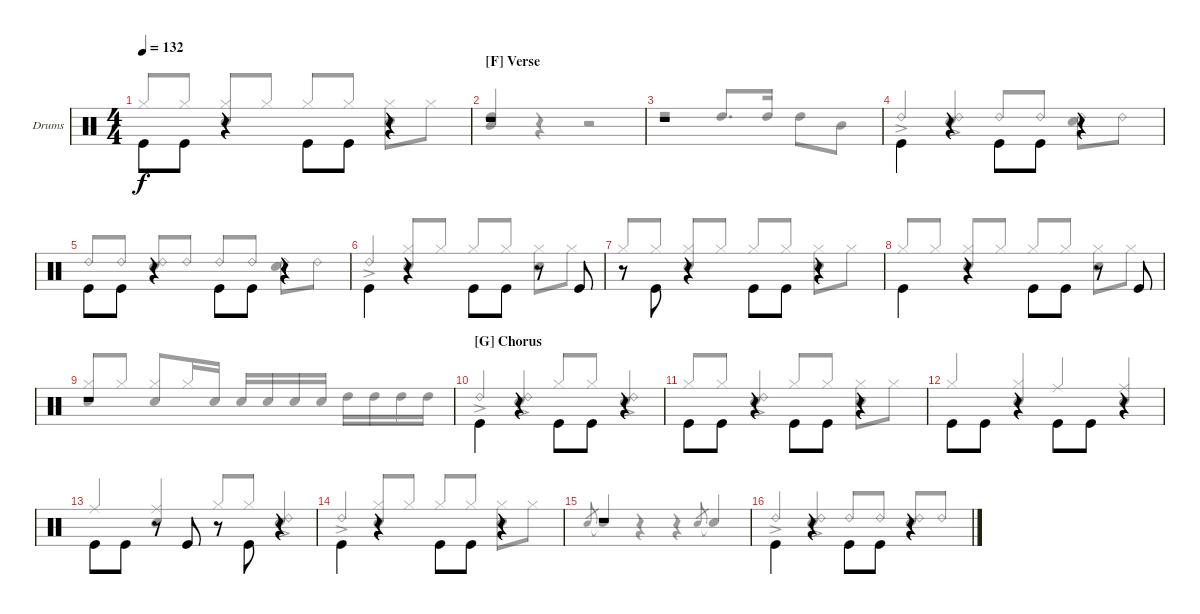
\bracketExtendMode groupsimilarinstruments
\firstSystemTrackNameOrientation horizontal
\otherSystemsTrackNameOrientation horizontal
\track ("Drum" "Drums") {instrument percussion}
\staff {score}
\articulation defaults
\voice
\ts (4 4)
\tempo 132
\clef neutral
\scale
0.973518
\ks aminor "Kick (hit)".8{dy f beam invert} "Kick (hit)".8
r.4 "Kick (hit)".8{beam invert} "Kick (hit)".8 r.4 |
\section ("F" "Verse")
\scale
1.02648 r.1 |
\scale
0.973518 r.1 |
\scale
1.02648 "Kick (hit)".4{beam invert} r.4{beam invert} "Kick (hit)".8{beam invert} "Kick (hit)".8 r.4 |
\scale
0.973518 "Kick (hit)".8{beam invert} "Kick (hit)".8 r.4 "Kick (hit)".8{beam invert} "Kick (hit)".8 r.4 |
\scale
1.02648 "Kick (hit)".4{beam invert} r.4{beam invert} "Kick (hit)".8{beam invert} "Kick (hit)".8 r.8 "Kick (hit)".8 |
\scale
0.973518 r.8 "Kick (hit)".8{beam invert} r.4 "Kick (hit)".8{beam invert} "Kick (hit)".8 r.4 |
\scale
1.02648 "Kick (hit)".4{beam invert} r.4{beam invert} "Kick (hit)".8{beam invert} "Kick (hit)".8 r.8 "Kick (hit)".8 |
\scale
0.973518 r.1 |
\section ("G" "Chorus")
\scale
1.02648 "Kick (hit)".4{beam invert} r.4{beam invert} "Kick (hit)".8{beam invert} "Kick (hit)".8 r.4 |
\scale
0.973518 "Kick (hit)".8{beam invert} "Kick (hit)".8 r.4 "Kick (hit)".8{beam invert} "Kick (hit)".8 r.4 |
\scale
1.02648 "Kick (hit)".8{beam invert} "Kick (hit)".8 r.4 "Kick (hit)".8{beam invert} "Kick (hit)".8 r.4 |
\scale
0.973518 "Kick (hit)".8{beam invert} "Kick (hit)".8 r.8 "Kick (hit)".8 r.8 "Kick (hit)".8{beam invert} r.4 |
\scale
1.02648 "Kick (hit)".4{beam invert} r.4{beam invert} "Kick (hit)".8{beam invert} "Kick (hit)".8 r.4 |
\scale
0.973518 r.1 |
\scale
1.02648 "Kick (hit)".4{beam invert} r.4{beam invert} "Kick (hit)".8{beam invert} "Kick (hit)".8 r.4
\voice
\clef neutral
\ottava regular
\simile none
\scale
0.973518
\ks aminor "Hi-Hat (closed)".8{dy f beam invert} "Hi-Hat (closed)".8
("Hi-Hat (closed)" "Snare (hit) 2").8 "Hi-Hat (closed)".8 "Hi-Hat (closed)".8{beam invert} "Hi-Hat (closed)".8 ("Hi-Hat (closed)" "Snare (hit) 2").8 "Hi-Hat (closed)".8 |
\scale
1.02648 ("Mid Tom (hit)" "High Tom (hit)").4{beam invert} r.4 r.2 |
\scale
0.973518 r.2 "High Tom (hit)".8{d beam invert} "High Tom (hit)".16 "High Tom (hit)".8 "Mid Tom (hit)".8 |
\scale
1.02648 "Ride (bell) 2"{ac}.4{beam invert} ("Ride (bell) 2"{ac} "Snare (hit) 2").4{beam invert} "Ride (bell) 2".8{beam invert} "Ride (bell) 2".8 ("Ride (bell) 2" "Snare (hit) 2").8 "Ride (bell) 2".8 |
\scale
0.973518 "Ride (bell) 2".8{beam invert} "Ride (bell) 2".8 ("Ride (bell) 2" "Snare (hit) 2").8 "Ride (bell) 2".8 "Ride (bell) 2".8{beam invert} "Ride (bell) 2".8 ("Ride (bell) 2" "Snare (hit) 2").8 "Ride (bell) 2".8 |
\scale
1.02648 "Ride (bell) 2"{ac}.4{beam invert} ("Snare (hit) 2" "Hi-Hat (closed)").8{beam invert} "Hi-Hat (closed)".8 "Hi-Hat (closed)".8{beam invert} "Hi-Hat (closed)".8 ("Snare (hit) 2" "Hi-Hat (closed)").8 "Hi-Hat (closed)".8 |
\scale
0.973518 "Hi-Hat (closed)".8{beam invert} "Hi-Hat (closed)".8 ("Snare (hit) 2" "Hi-Hat (closed)").8 "Hi-Hat (closed)".8 "Hi-Hat (closed)".8{beam invert} "Hi-Hat (closed)".8 ("Snare (hit) 2" "Hi-Hat (closed)").8 "Hi-Hat (closed)".8 |
\scale
1.02648 "Hi-Hat (closed)".8{beam invert} "Hi-Hat (closed)".8 ("Snare (hit) 2" "Hi-Hat (closed)").8 "Hi-Hat (closed)".8 "Hi-Hat (closed)".8{beam invert} "Hi-Hat (closed)".8 ("Snare (hit) 2" "Hi-Hat (closed)").8 "Hi-Hat (closed)".8 |
\scale
0.973518 ("Hi-Hat (closed)" "Snare (hit) 2").8{beam invert} "Hi-Hat (closed)".8 ("Hi-Hat (closed)" "Snare (hit) 2").8 "Hi-Hat (closed)".16 "Snare (hit) 2".16 "Snare (hit) 2".16{beam invert} "Snare (hit) 2".16 "Snare (hit) 2".16 "Snare (hit) 2".16 "High Tom (hit)".16 "High Tom (hit)".16 "High Tom (hit)".16 "High Tom (hit)".16 |
\scale
1.02648 "Ride (bell) 2"{ac}.4{beam invert} ("Ride (bell) 2"{ac} "Snare (hit) 2").4{beam invert} "Hi-Hat (closed)".8{beam invert} "Hi-Hat (closed)".8 ("Ride (bell) 2"{ac} "Snare (hit) 2").4{beam invert} |
\scale
0.973518 "Hi-Hat (closed)".8{beam invert} "Hi-Hat (closed)".8 ("Ride (bell) 2"{ac} "Snare (hit) 2").4{beam invert} "Hi-Hat (closed)".8{beam invert} "Hi-Hat (closed)".8 ("Hi-Hat (closed)" "Snare (hit) 2").8 "Hi-Hat (closed)".8 |
\scale
1.02648 "Hi-Hat (closed)".4{beam invert} ("Snare (hit) 2" "Hi-Hat (closed)").4{beam invert} "Ride (middle)".4{beam invert} ("Snare (hit) 2" "Ride (middle)").4{beam invert} |
\scale
0.973518 "Ride (middle)".4{beam invert} ("Snare (hit) 2" "Ride (middle)").4{beam invert} "Hi-Hat (closed)".8{beam invert} "Hi-Hat (closed)".8 ("Ride (bell) 2"{ac} "Snare (hit) 2").4{beam invert} |
\scale
1.02648 "Ride (bell) 2"{ac}.4{beam invert} ("Hi-Hat (closed)" "Snare (hit) 2").8{beam invert} "Hi-Hat (closed)".8 "Hi-Hat (closed)".8{beam invert} "Hi-Hat (closed)".8 ("Hi-Hat (closed)" "Snare (hit) 2").8 "Hi-Hat (closed)".8 |
\scale
0.973518 "Snare (hit) 2".8{gr beam invert} "Snare (hit) 2"{t}.4{beam invert} r.4 r.4 "Snare (hit) 2".8{gr beam invert} "Snare (hit) 2"{t}.4{beam invert} |
\scale
1.02648 "Ride (bell) 2"{ac}.4{beam invert} ("Ride (bell) 2"{ac} "Snare (hit) 2").4{beam invert} "Ride (bell) 2".8{beam invert} "Ride (bell) 2".8 ("Ride (bell) 2" "Snare (hit) 2").8{beam invert} "Ride (bell) 2".8
